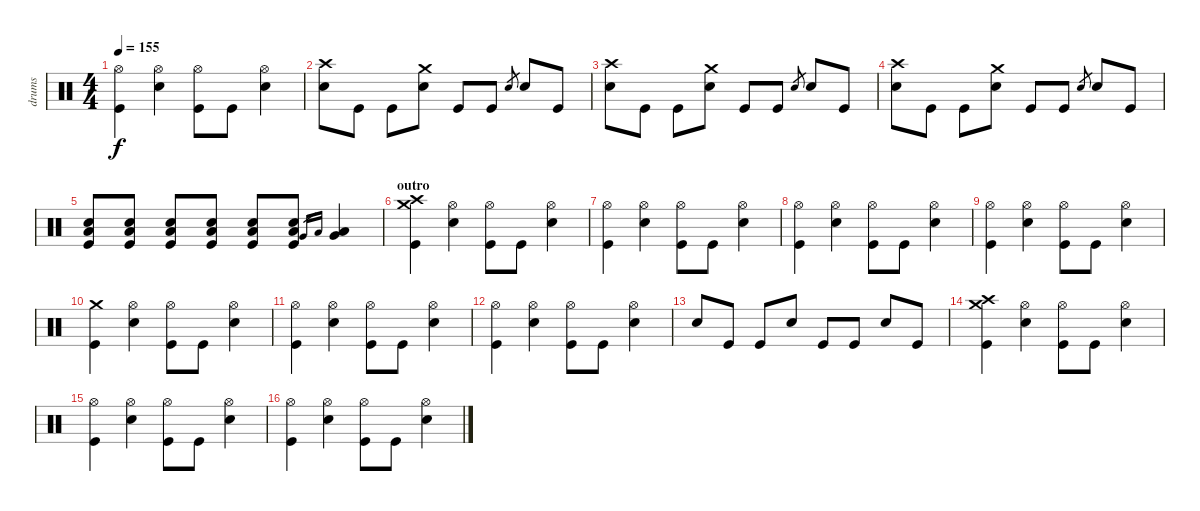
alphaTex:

\track ("drums" "drums") {instrument percussion}
\staff {score}
\articulation defaults
\ts (4 4)
\tempo 155
\clef neutral
\ks c
("Hi-Hat (open)" "Kick (hit)").4{dy f} ("Hi-Hat (open)" "Snare (hit) 2").4 ("Hi-Hat (open)" "Kick (hit)").8 "Kick (hit)".8 ("Hi-Hat (open)" "Snare (hit) 2").4 |
("Crash high (hit)" "Snare (hit) 2").8 "Kick (hit)".8 "Kick (hit)".8 ("Crash medium (hit)" "Snare (hit) 2").8 "Kick (hit)".8 "Kick (hit)".8 "Snare (hit) 2".8{gr} "Snare (hit) 2".8 "Kick (hit)".8 |
("Crash high (hit)" "Snare (hit) 2").8 "Kick (hit)".8 "Kick (hit)".8 ("Crash medium (hit)" "Snare (hit) 2").8 "Kick (hit)".8 "Kick (hit)".8 "Snare (hit) 2".8{gr} "Snare (hit) 2".8 "Kick (hit)".8 |
("Crash high (hit)" "Snare (hit) 2").8 "Kick (hit)".8 "Kick (hit)".8 ("Crash medium (hit)" "Snare (hit) 2").8 "Kick (hit)".8 "Kick (hit)".8 "Snare (hit) 2".8{gr} "Snare (hit) 2".8 "Kick (hit)".8 |
("Snare (hit) 2" "Low Floor Tom (hit)" "Kick (hit)").8 ("Snare (hit) 2" "Low Floor Tom (hit)" "Kick (hit)").8 ("Snare (hit) 2" "Low Floor Tom (hit)" "Kick (hit)").8 ("Snare (hit) 2" "Low Floor Tom (hit)" "Kick (hit)").8 ("Snare (hit) 2" "Low Floor Tom (hit)" "Kick (hit)").8 ("Snare (hit) 2" "Low Floor Tom (hit)" "Kick (hit)").8 "Very Low Tom (hit)".16{gr} "Low Floor Tom (hit)".16{gr} ("Very Low Tom (hit)" "Low Floor Tom (hit)").4 |
\section ("" "outro")
("Crash high (hit)" "Crash medium (hit)" "Kick (hit)").4 ("Hi-Hat (open)" "Snare (hit) 2").4 ("Hi-Hat (open)" "Kick (hit)").8 "Kick (hit)".8 ("Hi-Hat (open)" "Snare (hit) 2").4 |
("Hi-Hat (open)" "Kick (hit)").4 ("Hi-Hat (open)" "Snare (hit) 2").4 ("Hi-Hat (open)" "Kick (hit)").8 "Kick (hit)".8 ("Hi-Hat (open)" "Snare (hit) 2").4 |
("Hi-Hat (open)" "Kick (hit)").4 ("Hi-Hat (open)" "Snare (hit) 2").4 ("Hi-Hat (open)" "Kick (hit)").8 "Kick (hit)".8 ("Hi-Hat (open)" "Snare (hit) 2").4 |
("Hi-Hat (open)" "Kick (hit)").4 ("Hi-Hat (open)" "Snare (hit) 2").4 ("Hi-Hat (open)" "Kick (hit)").8 "Kick (hit)".8 ("Hi-Hat (open)" "Snare (hit) 2").4 |
("Crash medium (hit)" "Kick (hit)").4 ("Hi-Hat (open)" "Snare (hit) 2").4 ("Hi-Hat (open)" "Kick (hit)").8 "Kick (hit)".8 ("Hi-Hat (open)" "Snare (hit) 2").4 |
("Hi-Hat (open)" "Kick (hit)").4 ("Hi-Hat (open)" "Snare (hit) 2").4 ("Hi-Hat (open)" "Kick (hit)").8 "Kick (hit)".8 ("Hi-Hat (open)" "Snare (hit) 2").4 |
("Hi-Hat (open)" "Kick (hit)").4 ("Hi-Hat (open)" "Snare (hit) 2").4 ("Hi-Hat (open)" "Kick (hit)").8 "Kick (hit)".8 ("Hi-Hat (open)" "Snare (hit) 2").4 |
"Snare (hit) 2".8 "Kick (hit)".8 "Kick (hit)".8 "Snare (hit) 2".8 "Kick (hit)".8 "Kick (hit)".8 "Snare (hit) 2".8 "Kick (hit)".8 |
("Crash high (hit)" "Crash medium (hit)" "Kick (hit)").4 ("Hi-Hat (open)" "Snare (hit) 2").4 ("Hi-Hat (open)" "Kick (hit)").8 "Kick (hit)".8 ("Hi-Hat (open)" "Snare (hit) 2").4 |
("Hi-Hat (open)" "Kick (hit)").4 ("Hi-Hat (open)" "Snare (hit) 2").4 ("Hi-Hat (open)" "Kick (hit)").8 "Kick (hit)".8 ("Hi-Hat (open)" "Snare (hit) 2").4 |
("Hi-Hat (open)" "Kick (hit)").4 ("Hi-Hat (open)" "Snare (hit) 2").4 ("Hi-Hat (open)" "Kick (hit)").8 "Kick (hit)".8 ("Hi-Hat (open)" "Snare (hit) 2").4
